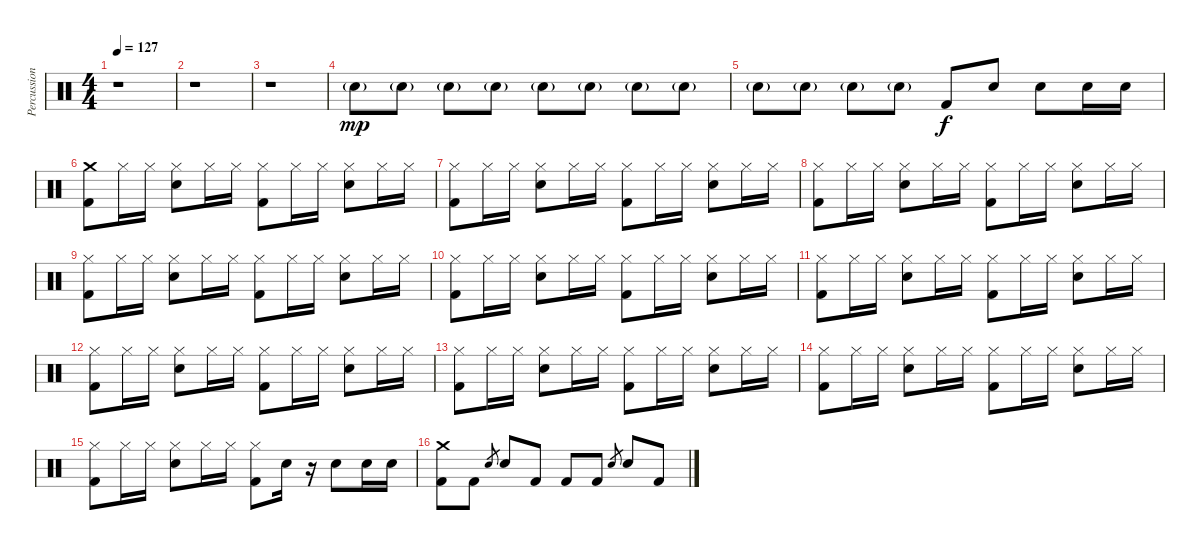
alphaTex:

\track ("Percussion" "Percussion") {instrument percussion}
\staff {score}
\articulation defaults
\ts (4 4)
\tempo 127
\clef neutral
\ks c
r.1{dy f} |
r.1 |
r.1 |
"Electric Snare (hit)"{g}.8{dy mp} "Electric Snare (hit)"{g}.8 "Electric Snare (hit)"{g}.8 "Electric Snare (hit)"{g}.8 "Electric Snare (hit)"{g}.8 "Electric Snare (hit)"{g}.8 "Electric Snare (hit)"{g}.8 "Electric Snare (hit)"{g}.8 |
"Electric Snare (hit)"{g}.8 "Electric Snare (hit)"{g}.8 "Electric Snare (hit)"{g}.8 "Electric Snare (hit)"{g}.8 "Kick (hit) 2".8{dy f} "Electric Snare (hit)".8 "Electric Snare (hit)".8 "Electric Snare (hit)".16 "Electric Snare (hit)".16 |
("Crash medium (hit)" "Kick (hit) 2").8 "Hi-Hat (closed)".16 "Hi-Hat (closed)".16 ("Hi-Hat (closed)" "Electric Snare (hit)").8 "Hi-Hat (closed)".16 "Hi-Hat (closed)".16 ("Hi-Hat (closed)" "Kick (hit) 2").8 "Hi-Hat (closed)".16 "Hi-Hat (closed)".16 ("Hi-Hat (closed)" "Electric Snare (hit)").8 "Hi-Hat (closed)".16 "Hi-Hat (closed)".16 |
("Hi-Hat (closed)" "Kick (hit) 2").8 "Hi-Hat (closed)".16 "Hi-Hat (closed)".16 ("Hi-Hat (closed)" "Electric Snare (hit)").8 "Hi-Hat (closed)".16 "Hi-Hat (closed)".16 ("Hi-Hat (closed)" "Kick (hit) 2").8 "Hi-Hat (closed)".16 "Hi-Hat (closed)".16 ("Hi-Hat (closed)" "Electric Snare (hit)").8 "Hi-Hat (closed)".16 "Hi-Hat (closed)".16 |
("Hi-Hat (closed)" "Kick (hit) 2").8 "Hi-Hat (closed)".16 "Hi-Hat (closed)".16 ("Hi-Hat (closed)" "Electric Snare (hit)").8 "Hi-Hat (closed)".16 "Hi-Hat (closed)".16 ("Hi-Hat (closed)" "Kick (hit) 2").8 "Hi-Hat (closed)".16 "Hi-Hat (closed)".16 ("Hi-Hat (closed)" "Electric Snare (hit)").8 "Hi-Hat (closed)".16 "Hi-Hat (closed)".16 |
("Hi-Hat (closed)" "Kick (hit) 2").8 "Hi-Hat (closed)".16 "Hi-Hat (closed)".16 ("Hi-Hat (closed)" "Electric Snare (hit)").8 "Hi-Hat (closed)".16 "Hi-Hat (closed)".16 ("Hi-Hat (closed)" "Kick (hit) 2").8 "Hi-Hat (closed)".16 "Hi-Hat (closed)".16 ("Hi-Hat (closed)" "Electric Snare (hit)").8 "Hi-Hat (closed)".16 "Hi-Hat (closed)".16 |
("Hi-Hat (closed)" "Kick (hit) 2").8 "Hi-Hat (closed)".16 "Hi-Hat (closed)".16 ("Hi-Hat (closed)" "Electric Snare (hit)").8 "Hi-Hat (closed)".16 "Hi-Hat (closed)".16 ("Hi-Hat (closed)" "Kick (hit) 2").8 "Hi-Hat (closed)".16 "Hi-Hat (closed)".16 ("Hi-Hat (closed)" "Electric Snare (hit)").8 "Hi-Hat (closed)".16 "Hi-Hat (closed)".16 |
("Hi-Hat (closed)" "Kick (hit) 2").8 "Hi-Hat (closed)".16 "Hi-Hat (closed)".16 ("Hi-Hat (closed)" "Electric Snare (hit)").8 "Hi-Hat (closed)".16 "Hi-Hat (closed)".16 ("Hi-Hat (closed)" "Kick (hit) 2").8 "Hi-Hat (closed)".16 "Hi-Hat (closed)".16 ("Hi-Hat (closed)" "Electric Snare (hit)").8 "Hi-Hat (closed)".16 "Hi-Hat (closed)".16 |
("Hi-Hat (closed)" "Kick (hit) 2").8 "Hi-Hat (closed)".16 "Hi-Hat (closed)".16 ("Hi-Hat (closed)" "Electric Snare (hit)").8 "Hi-Hat (closed)".16 "Hi-Hat (closed)".16 ("Hi-Hat (closed)" "Kick (hit) 2").8 "Hi-Hat (closed)".16 "Hi-Hat (closed)".16 ("Hi-Hat (closed)" "Electric Snare (hit)").8 "Hi-Hat (closed)".16 "Hi-Hat (closed)".16 |
("Hi-Hat (closed)" "Kick (hit) 2").8 "Hi-Hat (closed)".16 "Hi-Hat (closed)".16 ("Hi-Hat (closed)" "Electric Snare (hit)").8 "Hi-Hat (closed)".16 "Hi-Hat (closed)".16 ("Hi-Hat (closed)" "Kick (hit) 2").8 "Hi-Hat (closed)".16 "Hi-Hat (closed)".16 ("Hi-Hat (closed)" "Electric Snare (hit)").8 "Hi-Hat (closed)".16 "Hi-Hat (closed)".16 |
("Hi-Hat (closed)" "Kick (hit) 2").8 "Hi-Hat (closed)".16 "Hi-Hat (closed)".16 ("Hi-Hat (closed)" "Electric Snare (hit)").8 "Hi-Hat (closed)".16 "Hi-Hat (closed)".16 ("Hi-Hat (closed)" "Kick (hit) 2").8 "Hi-Hat (closed)".16 "Hi-Hat (closed)".16 ("Hi-Hat (closed)" "Electric Snare (hit)").8 "Hi-Hat (closed)".16 "Hi-Hat (closed)".16 |
("Hi-Hat (closed)" "Kick (hit) 2").8 "Hi-Hat (closed)".16 "Hi-Hat (closed)".16 ("Hi-Hat (closed)" "Electric Snare (hit)").8 "Hi-Hat (closed)".16 "Hi-Hat (closed)".16 ("Hi-Hat (closed)" "Kick (hit) 2").8 "Electric Snare (hit)".16 r.16 "Electric Snare (hit)".8 "Electric Snare (hit)".16 "Electric Snare (hit)".16 |
("Crash medium (hit)" "Kick (hit) 2").8 "Kick (hit) 2".8 "Electric Snare (hit)".8{gr} "Electric Snare (hit)".8 "Kick (hit) 2".8 "Kick (hit) 2".8 "Kick (hit) 2".8 "Electric Snare (hit)".8{gr} "Electric Snare (hit)".8 "Kick (hit) 2".8
